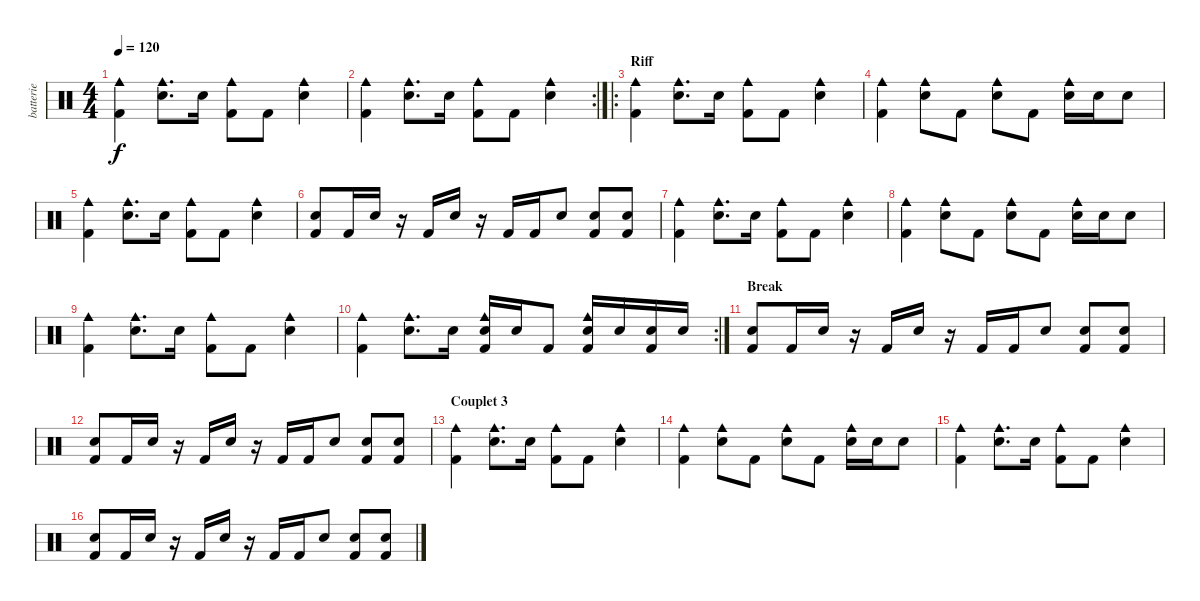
\track ("batterie" "batterie") {instrument percussion}
\staff {score}
\articulation defaults
\ts (4 4)
\tempo 120
\clef neutral
\ks c
("Kick (hit) 2" "Cowbell medium (hit)").4{dy f} ("Electric Snare (hit)" "Cowbell medium (hit)").8{d} "Electric Snare (hit)".16 ("Kick (hit) 2" "Cowbell medium (hit)").8 "Kick (hit) 2".8 ("Electric Snare (hit)" "Cowbell medium (hit)").4 |
\rc 2
("Kick (hit) 2" "Cowbell medium (hit)").4 ("Electric Snare (hit)" "Cowbell medium (hit)").8{d} "Electric Snare (hit)".16 ("Kick (hit) 2" "Cowbell medium (hit)").8 "Kick (hit) 2".8 ("Electric Snare (hit)" "Cowbell medium (hit)").4 |
\ro
\section ("" "Riff")
("Kick (hit) 2" "Cowbell medium (hit)").4 ("Electric Snare (hit)" "Cowbell medium (hit)").8{d} "Electric Snare (hit)".16 ("Kick (hit) 2" "Cowbell medium (hit)").8 "Kick (hit) 2".8 ("Electric Snare (hit)" "Cowbell medium (hit)").4 |
("Kick (hit) 2" "Cowbell medium (hit)").4 ("Electric Snare (hit)" "Cowbell medium (hit)").8 "Kick (hit) 2".8 ("Electric Snare (hit)" "Cowbell medium (hit)").8 "Kick (hit) 2".8 ("Electric Snare (hit)" "Cowbell medium (hit)").16 "Electric Snare (hit)".16 "Electric Snare (hit)".8 |
("Kick (hit) 2" "Cowbell medium (hit)").4 ("Electric Snare (hit)" "Cowbell medium (hit)").8{d} "Electric Snare (hit)".16 ("Kick (hit) 2" "Cowbell medium (hit)").8 "Kick (hit) 2".8 ("Electric Snare (hit)" "Cowbell medium (hit)").4 |
("Kick (hit) 2" "Electric Snare (hit)").8 "Kick (hit) 2".16 "Electric Snare (hit)".16 r.16 "Kick (hit) 2".16 "Electric Snare (hit)".16 r.16 "Kick (hit) 2".16 "Kick (hit) 2".16 "Electric Snare (hit)".8 ("Kick (hit) 2" "Electric Snare (hit)").8 ("Kick (hit) 2" "Electric Snare (hit)").8 |
("Kick (hit) 2" "Cowbell medium (hit)").4 ("Electric Snare (hit)" "Cowbell medium (hit)").8{d} "Electric Snare (hit)".16 ("Kick (hit) 2" "Cowbell medium (hit)").8 "Kick (hit) 2".8 ("Electric Snare (hit)" "Cowbell medium (hit)").4 |
("Kick (hit) 2" "Cowbell medium (hit)").4 ("Electric Snare (hit)" "Cowbell medium (hit)").8 "Kick (hit) 2".8 ("Electric Snare (hit)" "Cowbell medium (hit)").8 "Kick (hit) 2".8 ("Electric Snare (hit)" "Cowbell medium (hit)").16 "Electric Snare (hit)".16 "Electric Snare (hit)".8 |
("Kick (hit) 2" "Cowbell medium (hit)").4 ("Electric Snare (hit)" "Cowbell medium (hit)").8{d} "Electric Snare (hit)".16 ("Kick (hit) 2" "Cowbell medium (hit)").8 "Kick (hit) 2".8 ("Electric Snare (hit)" "Cowbell medium (hit)").4 |
\rc 2
("Kick (hit) 2" "Cowbell medium (hit)").4 ("Electric Snare (hit)" "Cowbell medium (hit)").8{d} "Electric Snare (hit)".16 ("Kick (hit) 2" "Electric Snare (hit)" "Cowbell medium (hit)").16 "Electric Snare (hit)".16 "Kick (hit) 2".8 ("Kick (hit) 2" "Electric Snare (hit)" "Cowbell medium (hit)").16 "Electric Snare (hit)".16 ("Kick (hit) 2" "Electric Snare (hit)").16 "Electric Snare (hit)".16 |
\section ("" "Break")
("Kick (hit) 2" "Electric Snare (hit)").8 "Kick (hit) 2".16 "Electric Snare (hit)".16 r.16 "Kick (hit) 2".16 "Electric Snare (hit)".16 r.16 "Kick (hit) 2".16 "Kick (hit) 2".16 "Electric Snare (hit)".8 ("Kick (hit) 2" "Electric Snare (hit)").8 ("Kick (hit) 2" "Electric Snare (hit)").8 |
("Kick (hit) 2" "Electric Snare (hit)").8 "Kick (hit) 2".16 "Electric Snare (hit)".16 r.16 "Kick (hit) 2".16 "Electric Snare (hit)".16 r.16 "Kick (hit) 2".16 "Kick (hit) 2".16 "Electric Snare (hit)".8 ("Kick (hit) 2" "Electric Snare (hit)").8 ("Kick (hit) 2" "Electric Snare (hit)").8 |
\section ("" "Couplet 3")
("Kick (hit) 2" "Cowbell medium (hit)").4 ("Electric Snare (hit)" "Cowbell medium (hit)").8{d} "Electric Snare (hit)".16 ("Kick (hit) 2" "Cowbell medium (hit)").8 "Kick (hit) 2".8 ("Electric Snare (hit)" "Cowbell medium (hit)").4 |
("Kick (hit) 2" "Cowbell medium (hit)").4 ("Electric Snare (hit)" "Cowbell medium (hit)").8 "Kick (hit) 2".8 ("Electric Snare (hit)" "Cowbell medium (hit)").8 "Kick (hit) 2".8 ("Electric Snare (hit)" "Cowbell medium (hit)").16 "Electric Snare (hit)".16 "Electric Snare (hit)".8 |
("Kick (hit) 2" "Cowbell medium (hit)").4 ("Electric Snare (hit)" "Cowbell medium (hit)").8{d} "Electric Snare (hit)".16 ("Kick (hit) 2" "Cowbell medium (hit)").8 "Kick (hit) 2".8 ("Electric Snare (hit)" "Cowbell medium (hit)").4 |
("Kick (hit) 2" "Electric Snare (hit)").8 "Kick (hit) 2".16 "Electric Snare (hit)".16 r.16 "Kick (hit) 2".16 "Electric Snare (hit)".16 r.16 "Kick (hit) 2".16 "Kick (hit) 2".16 "Electric Snare (hit)".8 ("Kick (hit) 2" "Electric Snare (hit)").8 ("Kick (hit) 2" "Electric Snare (hit)").8
